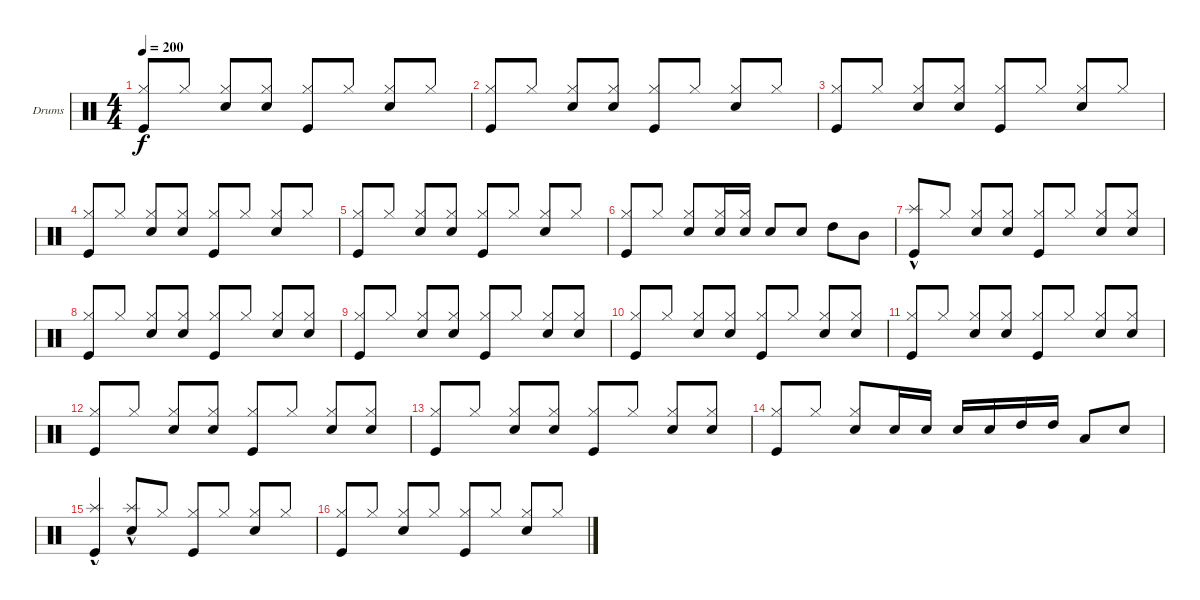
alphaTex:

\defaultSystemsLayout 4
\bracketExtendMode groupsimilarinstruments
\firstSystemTrackNameOrientation horizontal
\otherSystemsTrackNameOrientation horizontal
\track ("Drumkit" "Drums") {instrument percussion}
\staff {score}
\articulation defaults
\ts (4 4)
\tempo 200
\clef neutral
\ks c
("Hi-Hat (closed)" "Kick (hit)").8{dy f beam invert} "Hi-Hat (closed)".8 ("Hi-Hat (closed)" "Snare (hit) 2").8{beam invert} ("Hi-Hat (closed)" "Snare (hit) 2").8 ("Hi-Hat (closed)" "Kick (hit)").8{beam invert} "Hi-Hat (closed)".8 ("Hi-Hat (closed)" "Snare (hit) 2").8{beam invert} "Hi-Hat (closed)".8 |
("Hi-Hat (closed)" "Kick (hit)").8{beam invert} "Hi-Hat (closed)".8 ("Hi-Hat (closed)" "Snare (hit) 2").8{beam invert} ("Hi-Hat (closed)" "Snare (hit) 2").8 ("Hi-Hat (closed)" "Kick (hit)").8{beam invert} "Hi-Hat (closed)".8 ("Hi-Hat (closed)" "Snare (hit) 2").8{beam invert} "Hi-Hat (closed)".8 |
("Hi-Hat (closed)" "Kick (hit)").8{beam invert} "Hi-Hat (closed)".8 ("Hi-Hat (closed)" "Snare (hit) 2").8{beam invert} ("Hi-Hat (closed)" "Snare (hit) 2").8 ("Hi-Hat (closed)" "Kick (hit)").8{beam invert} "Hi-Hat (closed)".8 ("Hi-Hat (closed)" "Snare (hit) 2").8{beam invert} "Hi-Hat (closed)".8 |
("Hi-Hat (closed)" "Kick (hit)").8{beam invert} "Hi-Hat (closed)".8 ("Hi-Hat (closed)" "Snare (hit) 2").8{beam invert} ("Hi-Hat (closed)" "Snare (hit) 2").8 ("Hi-Hat (closed)" "Kick (hit)").8{beam invert} "Hi-Hat (closed)".8 ("Hi-Hat (closed)" "Snare (hit) 2").8{beam invert} "Hi-Hat (closed)".8 |
("Hi-Hat (closed)" "Kick (hit)").8{beam invert} "Hi-Hat (closed)".8 ("Hi-Hat (closed)" "Snare (hit) 2").8{beam invert} ("Hi-Hat (closed)" "Snare (hit) 2").8 ("Hi-Hat (closed)" "Kick (hit)").8{beam invert} "Hi-Hat (closed)".8 ("Hi-Hat (closed)" "Snare (hit) 2").8{beam invert} "Hi-Hat (closed)".8 |
("Hi-Hat (closed)" "Kick (hit)").8{beam invert} "Hi-Hat (closed)".8 ("Hi-Hat (closed)" "Snare (hit) 2").8{beam invert} ("Hi-Hat (closed)" "Snare (hit) 2").16 ("Hi-Hat (closed)" "Snare (hit) 2").16 "Snare (hit) 2".8 "Snare (hit) 2".8{beam invert} "High Tom (hit)".8 "Mid Tom (hit)".8 |
("Kick (hit)" "Splash (hit)"{hac}).8 "Hi-Hat (closed)".8 ("Hi-Hat (closed)" "Snare (hit) 2").8{beam invert} ("Hi-Hat (closed)" "Snare (hit) 2").8 ("Hi-Hat (closed)" "Kick (hit)").8{beam invert} "Hi-Hat (closed)".8 ("Hi-Hat (closed)" "Snare (hit) 2").8{beam invert} ("Hi-Hat (closed)" "Snare (hit) 2").8 |
("Hi-Hat (closed)" "Kick (hit)").8{beam invert} "Hi-Hat (closed)".8 ("Hi-Hat (closed)" "Snare (hit) 2").8{beam invert} ("Hi-Hat (closed)" "Snare (hit) 2").8 ("Hi-Hat (closed)" "Kick (hit)").8{beam invert} "Hi-Hat (closed)".8 ("Hi-Hat (closed)" "Snare (hit) 2").8{beam invert} ("Hi-Hat (closed)" "Snare (hit) 2").8 |
("Hi-Hat (closed)" "Kick (hit)").8{beam invert} "Hi-Hat (closed)".8 ("Hi-Hat (closed)" "Snare (hit) 2").8{beam invert} ("Hi-Hat (closed)" "Snare (hit) 2").8 ("Hi-Hat (closed)" "Kick (hit)").8{beam invert} "Hi-Hat (closed)".8 ("Hi-Hat (closed)" "Snare (hit) 2").8{beam invert} ("Hi-Hat (closed)" "Snare (hit) 2").8 |
("Hi-Hat (closed)" "Kick (hit)").8{beam invert} "Hi-Hat (closed)".8 ("Hi-Hat (closed)" "Snare (hit) 2").8{beam invert} ("Hi-Hat (closed)" "Snare (hit) 2").8 ("Hi-Hat (closed)" "Kick (hit)").8{beam invert} "Hi-Hat (closed)".8 ("Hi-Hat (closed)" "Snare (hit) 2").8{beam invert} ("Hi-Hat (closed)" "Snare (hit) 2").8 |
("Hi-Hat (closed)" "Kick (hit)").8{beam invert} "Hi-Hat (closed)".8 ("Hi-Hat (closed)" "Snare (hit) 2").8{beam invert} ("Hi-Hat (closed)" "Snare (hit) 2").8 ("Hi-Hat (closed)" "Kick (hit)").8{beam invert} "Hi-Hat (closed)".8 ("Hi-Hat (closed)" "Snare (hit) 2").8{beam invert} ("Hi-Hat (closed)" "Snare (hit) 2").8 |
("Hi-Hat (closed)" "Kick (hit)").8{beam invert} "Hi-Hat (closed)".8 ("Hi-Hat (closed)" "Snare (hit) 2").8{beam invert} ("Hi-Hat (closed)" "Snare (hit) 2").8 ("Hi-Hat (closed)" "Kick (hit)").8{beam invert} "Hi-Hat (closed)".8 ("Hi-Hat (closed)" "Snare (hit) 2").8{beam invert} ("Hi-Hat (closed)" "Snare (hit) 2").8 |
("Hi-Hat (closed)" "Kick (hit)").8{beam invert} "Hi-Hat (closed)".8 ("Hi-Hat (closed)" "Snare (hit) 2").8{beam invert} ("Hi-Hat (closed)" "Snare (hit) 2").8 ("Hi-Hat (closed)" "Kick (hit)").8{beam invert} "Hi-Hat (closed)".8 ("Hi-Hat (closed)" "Snare (hit) 2").8{beam invert} ("Hi-Hat (closed)" "Snare (hit) 2").8 |
("Hi-Hat (closed)" "Kick (hit)").8{beam invert} "Hi-Hat (closed)".8 ("Hi-Hat (closed)" "Snare (hit) 2").8{beam invert} "Snare (hit) 2".16 "Snare (hit) 2".16 "Snare (hit) 2".16{beam invert} "Snare (hit) 2".16 "High Tom (hit)".16 "High Tom (hit)".16 "Low Tom (hit)".8{beam invert} "Snare (hit) 2".8 |
("Kick (hit)" "Splash (hit)"{hac}).4 ("Snare (hit) 2" "Splash (hit)"{hac}).8{beam invert} "Hi-Hat (closed)".8 ("Hi-Hat (closed)" "Kick (hit)").8{beam invert} "Hi-Hat (closed)".8 ("Hi-Hat (closed)" "Snare (hit) 2").8{beam invert} "Hi-Hat (closed)".8 |
("Hi-Hat (closed)" "Kick (hit)").8{beam invert} "Hi-Hat (closed)".8 ("Hi-Hat (closed)" "Snare (hit) 2").8{beam invert} "Hi-Hat (closed)".8 ("Hi-Hat (closed)" "Kick (hit)").8{beam invert} "Hi-Hat (closed)".8 ("Hi-Hat (closed)" "Snare (hit) 2").8{beam invert} "Hi-Hat (closed)".8
